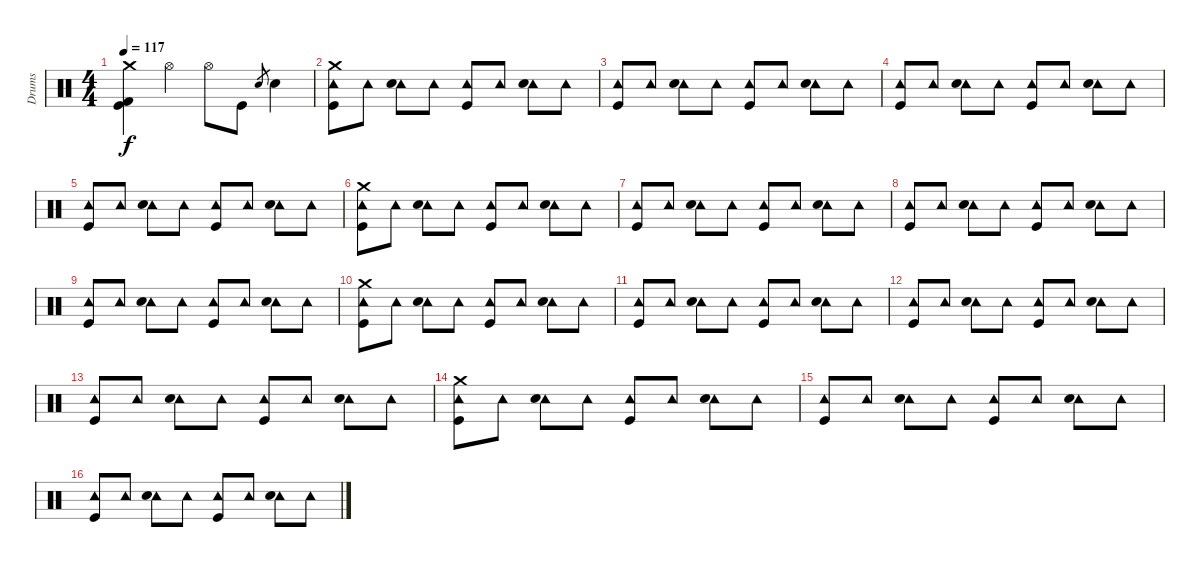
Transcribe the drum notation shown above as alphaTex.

\track ("Drums" "Drums") {instrument percussion}
\staff {score}
\articulation defaults
\ts (4 4)
\tempo 117
\clef neutral
\ks c
("Crash medium (hit)" "Kick (hit) 2" "Kick (hit)").4{dy f} "Hi-Hat (open)".4 "Hi-Hat (open)".8 "Kick (hit)".8 "Electric Snare (hit)".8{gr} "Electric Snare (hit)".4 |
("Crash medium (hit)" "Tambourine (hit)" "Kick (hit)").8 "Tambourine (hit)".8 ("Tambourine (hit)" "Electric Snare (hit)").8 "Tambourine (hit)".8 ("Tambourine (hit)" "Kick (hit)").8 "Tambourine (hit)".8 ("Tambourine (hit)" "Electric Snare (hit)").8 "Tambourine (hit)".8 |
("Tambourine (hit)" "Kick (hit)").8 "Tambourine (hit)".8 ("Tambourine (hit)" "Electric Snare (hit)").8 "Tambourine (hit)".8 ("Tambourine (hit)" "Kick (hit)").8 "Tambourine (hit)".8 ("Tambourine (hit)" "Electric Snare (hit)").8 "Tambourine (hit)".8 |
("Tambourine (hit)" "Kick (hit)").8 "Tambourine (hit)".8 ("Tambourine (hit)" "Electric Snare (hit)").8 "Tambourine (hit)".8 ("Tambourine (hit)" "Kick (hit)").8 "Tambourine (hit)".8 ("Tambourine (hit)" "Electric Snare (hit)").8 "Tambourine (hit)".8 |
("Tambourine (hit)" "Kick (hit)").8 "Tambourine (hit)".8 ("Tambourine (hit)" "Electric Snare (hit)").8 "Tambourine (hit)".8 ("Tambourine (hit)" "Kick (hit)").8 "Tambourine (hit)".8 ("Tambourine (hit)" "Electric Snare (hit)").8 "Tambourine (hit)".8 |
("Crash medium (hit)" "Tambourine (hit)" "Kick (hit)").8 "Tambourine (hit)".8 ("Tambourine (hit)" "Electric Snare (hit)").8 "Tambourine (hit)".8 ("Tambourine (hit)" "Kick (hit)").8 "Tambourine (hit)".8 ("Tambourine (hit)" "Electric Snare (hit)").8 "Tambourine (hit)".8 |
("Tambourine (hit)" "Kick (hit)").8 "Tambourine (hit)".8 ("Tambourine (hit)" "Electric Snare (hit)").8 "Tambourine (hit)".8 ("Tambourine (hit)" "Kick (hit)").8 "Tambourine (hit)".8 ("Tambourine (hit)" "Electric Snare (hit)").8 "Tambourine (hit)".8 |
("Tambourine (hit)" "Kick (hit)").8 "Tambourine (hit)".8 ("Tambourine (hit)" "Electric Snare (hit)").8 "Tambourine (hit)".8 ("Tambourine (hit)" "Kick (hit)").8 "Tambourine (hit)".8 ("Tambourine (hit)" "Electric Snare (hit)").8 "Tambourine (hit)".8 |
("Tambourine (hit)" "Kick (hit)").8 "Tambourine (hit)".8 ("Tambourine (hit)" "Electric Snare (hit)").8 "Tambourine (hit)".8 ("Tambourine (hit)" "Kick (hit)").8 "Tambourine (hit)".8 ("Tambourine (hit)" "Electric Snare (hit)").8 "Tambourine (hit)".8 |
("Crash medium (hit)" "Tambourine (hit)" "Kick (hit)").8 "Tambourine (hit)".8 ("Tambourine (hit)" "Electric Snare (hit)").8 "Tambourine (hit)".8 ("Tambourine (hit)" "Kick (hit)").8 "Tambourine (hit)".8 ("Tambourine (hit)" "Electric Snare (hit)").8 "Tambourine (hit)".8 |
("Tambourine (hit)" "Kick (hit)").8 "Tambourine (hit)".8 ("Tambourine (hit)" "Electric Snare (hit)").8 "Tambourine (hit)".8 ("Tambourine (hit)" "Kick (hit)").8 "Tambourine (hit)".8 ("Tambourine (hit)" "Electric Snare (hit)").8 "Tambourine (hit)".8 |
("Tambourine (hit)" "Kick (hit)").8 "Tambourine (hit)".8 ("Tambourine (hit)" "Electric Snare (hit)").8 "Tambourine (hit)".8 ("Tambourine (hit)" "Kick (hit)").8 "Tambourine (hit)".8 ("Tambourine (hit)" "Electric Snare (hit)").8 "Tambourine (hit)".8 |
("Tambourine (hit)" "Kick (hit)").8 "Tambourine (hit)".8 ("Tambourine (hit)" "Electric Snare (hit)").8 "Tambourine (hit)".8 ("Tambourine (hit)" "Kick (hit)").8 "Tambourine (hit)".8 ("Tambourine (hit)" "Electric Snare (hit)").8 "Tambourine (hit)".8 |
("Crash medium (hit)" "Tambourine (hit)" "Kick (hit)").8 "Tambourine (hit)".8 ("Tambourine (hit)" "Electric Snare (hit)").8 "Tambourine (hit)".8 ("Tambourine (hit)" "Kick (hit)").8 "Tambourine (hit)".8 ("Tambourine (hit)" "Electric Snare (hit)").8 "Tambourine (hit)".8 |
("Tambourine (hit)" "Kick (hit)").8 "Tambourine (hit)".8 ("Tambourine (hit)" "Electric Snare (hit)").8 "Tambourine (hit)".8 ("Tambourine (hit)" "Kick (hit)").8 "Tambourine (hit)".8 ("Tambourine (hit)" "Electric Snare (hit)").8 "Tambourine (hit)".8 |
("Tambourine (hit)" "Kick (hit)").8 "Tambourine (hit)".8 ("Tambourine (hit)" "Electric Snare (hit)").8 "Tambourine (hit)".8 ("Tambourine (hit)" "Kick (hit)").8 "Tambourine (hit)".8 ("Tambourine (hit)" "Electric Snare (hit)").8 "Tambourine (hit)".8
